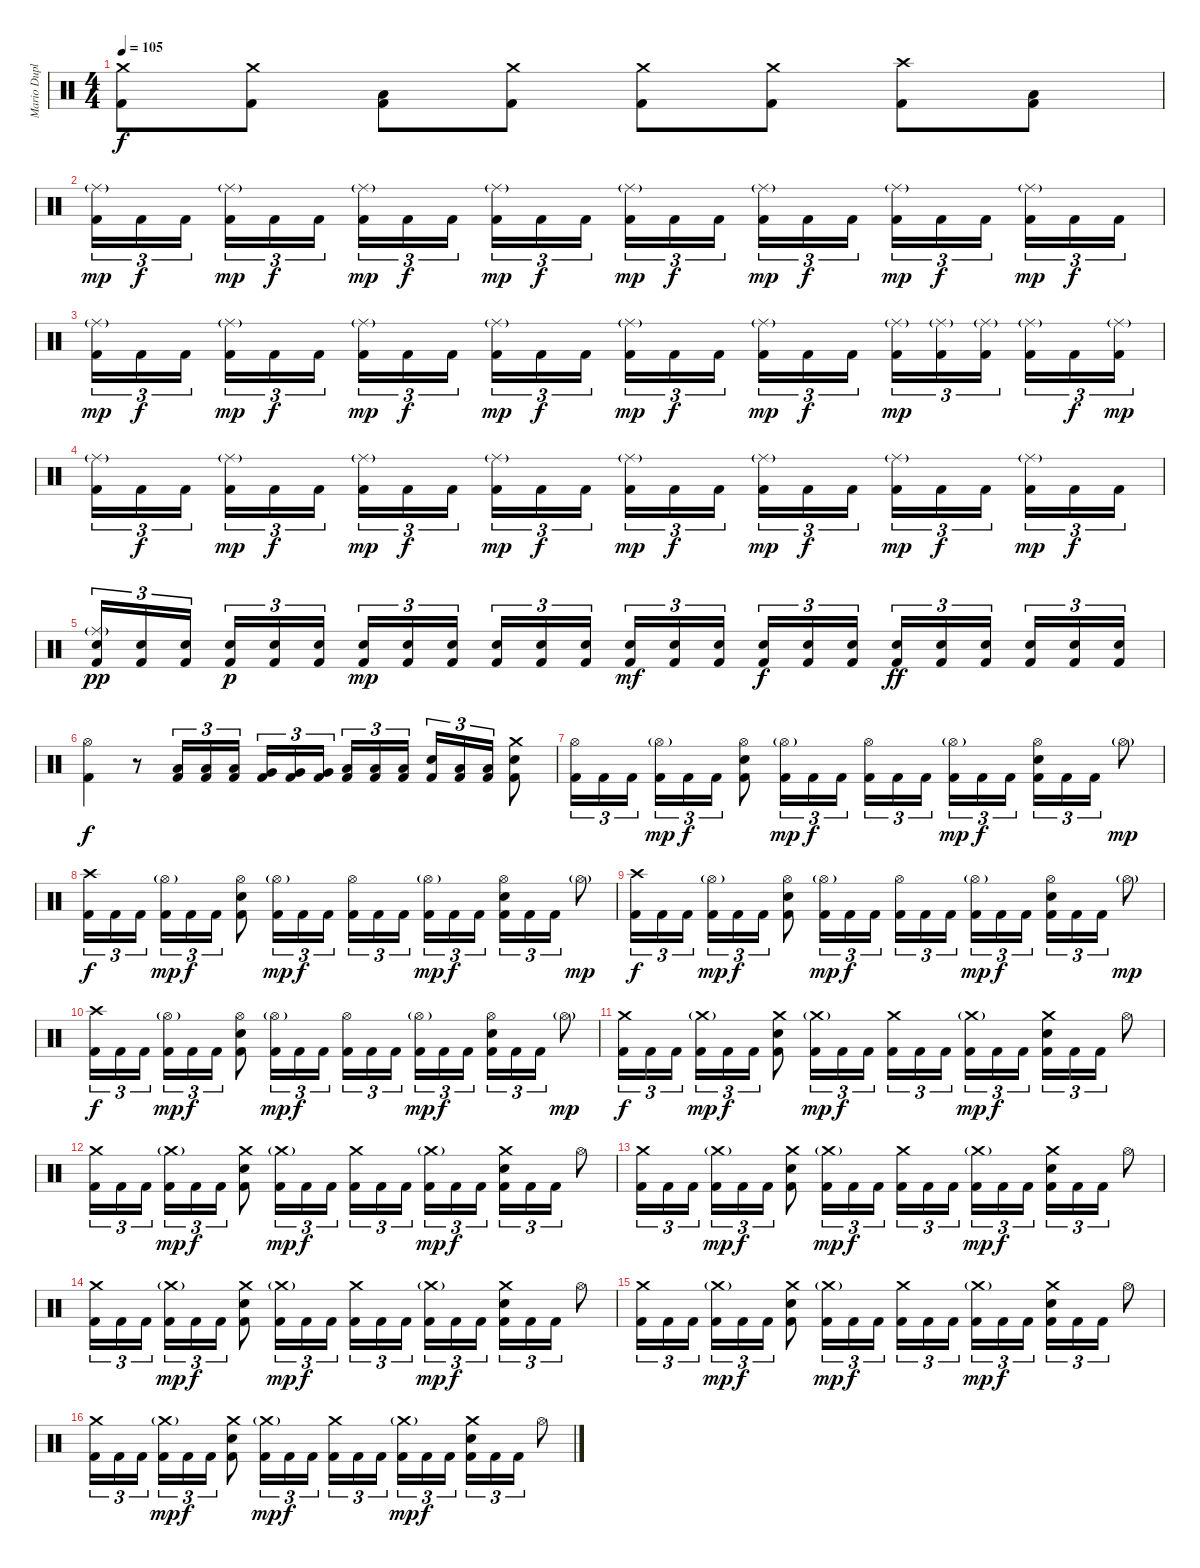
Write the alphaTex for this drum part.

\track ("Mario Duplantier" "Mario Dupl") {instrument percussion}
\staff {score}
\articulation defaults
\ts (4 4)
\tempo 105
\clef neutral
\ks c
("Crash medium (hit)" "Kick (hit) 2").8{dy f} ("Crash medium (hit)" "Kick (hit) 2").8 ("Low Floor Tom (hit)" "Kick (hit) 2").8 ("Crash medium (hit)" "Kick (hit) 2").8 ("Crash medium (hit)" "Kick (hit) 2").8 ("Crash medium (hit)" "Kick (hit) 2").8 ("Crash high (hit)" "Kick (hit) 2").8 ("Low Floor Tom (hit)" "Kick (hit) 2").8 |
("Ride (middle)"{g} "Kick (hit) 2").16{tu (3 2) dy mp} "Kick (hit) 2".16{tu (3 2) dy f} "Kick (hit) 2".16{tu (3 2)} ("Ride (middle)"{g} "Kick (hit) 2").16{tu (3 2) dy mp} "Kick (hit) 2".16{tu (3 2) dy f} "Kick (hit) 2".16{tu (3 2)} ("Ride (middle)"{g} "Kick (hit) 2").16{tu (3 2) dy mp} "Kick (hit) 2".16{tu (3 2) dy f} "Kick (hit) 2".16{tu (3 2)} ("Ride (middle)"{g} "Kick (hit) 2").16{tu (3 2) dy mp} "Kick (hit) 2".16{tu (3 2) dy f} "Kick (hit) 2".16{tu (3 2)} ("Ride (middle)"{g} "Kick (hit) 2").16{tu (3 2) dy mp} "Kick (hit) 2".16{tu (3 2) dy f} "Kick (hit) 2".16{tu (3 2)} ("Ride (middle)"{g} "Kick (hit) 2").16{tu (3 2) dy mp} "Kick (hit) 2".16{tu (3 2) dy f} "Kick (hit) 2".16{tu (3 2)} ("Ride (middle)"{g} "Kick (hit) 2").16{tu (3 2) dy mp} "Kick (hit) 2".16{tu (3 2) dy f} "Kick (hit) 2".16{tu (3 2)} ("Ride (middle)"{g} "Kick (hit) 2").16{tu (3 2) dy mp} "Kick (hit) 2".16{tu (3 2) dy f} "Kick (hit) 2".16{tu (3 2)} |
("Ride (middle)"{g} "Kick (hit) 2").16{tu (3 2) dy mp} "Kick (hit) 2".16{tu (3 2) dy f} "Kick (hit) 2".16{tu (3 2)} ("Ride (middle)"{g} "Kick (hit) 2").16{tu (3 2) dy mp} "Kick (hit) 2".16{tu (3 2) dy f} "Kick (hit) 2".16{tu (3 2)} ("Ride (middle)"{g} "Kick (hit) 2").16{tu (3 2) dy mp} "Kick (hit) 2".16{tu (3 2) dy f} "Kick (hit) 2".16{tu (3 2)} ("Ride (middle)"{g} "Kick (hit) 2").16{tu (3 2) dy mp} "Kick (hit) 2".16{tu (3 2) dy f} "Kick (hit) 2".16{tu (3 2)} ("Ride (middle)"{g} "Kick (hit) 2").16{tu (3 2) dy mp} "Kick (hit) 2".16{tu (3 2) dy f} "Kick (hit) 2".16{tu (3 2)} ("Ride (middle)"{g} "Kick (hit) 2").16{tu (3 2) dy mp} "Kick (hit) 2".16{tu (3 2) dy f} "Kick (hit) 2".16{tu (3 2)} ("Ride (middle)"{g} "Kick (hit) 2").16{tu (3 2) dy mp} ("Ride (middle)"{g} "Kick (hit) 2").16{tu (3 2)} ("Ride (middle)"{g} "Kick (hit) 2").16{tu (3 2)} ("Ride (middle)"{g} "Kick (hit) 2").16{tu (3 2)} "Kick (hit) 2".16{tu (3 2) dy f} ("Ride (middle)"{g} "Kick (hit) 2").16{tu (3 2) dy mp} |
("Ride (middle)"{g} "Kick (hit) 2").16{tu (3 2)} "Kick (hit) 2".16{tu (3 2) dy f} "Kick (hit) 2".16{tu (3 2)} ("Ride (middle)"{g} "Kick (hit) 2").16{tu (3 2) dy mp} "Kick (hit) 2".16{tu (3 2) dy f} "Kick (hit) 2".16{tu (3 2)} ("Ride (middle)"{g} "Kick (hit) 2").16{tu (3 2) dy mp} "Kick (hit) 2".16{tu (3 2) dy f} "Kick (hit) 2".16{tu (3 2)} ("Ride (middle)"{g} "Kick (hit) 2").16{tu (3 2) dy mp} "Kick (hit) 2".16{tu (3 2) dy f} "Kick (hit) 2".16{tu (3 2)} ("Ride (middle)"{g} "Kick (hit) 2").16{tu (3 2) dy mp} "Kick (hit) 2".16{tu (3 2) dy f} "Kick (hit) 2".16{tu (3 2)} ("Ride (middle)"{g} "Kick (hit) 2").16{tu (3 2) dy mp} "Kick (hit) 2".16{tu (3 2) dy f} "Kick (hit) 2".16{tu (3 2)} ("Ride (middle)"{g} "Kick (hit) 2").16{tu (3 2) dy mp} "Kick (hit) 2".16{tu (3 2) dy f} "Kick (hit) 2".16{tu (3 2)} ("Ride (middle)"{g} "Kick (hit) 2").16{tu (3 2) dy mp} "Kick (hit) 2".16{tu (3 2) dy f} "Kick (hit) 2".16{tu (3 2)} |
("Ride (middle)"{g} "Electric Snare (hit)" "Kick (hit) 2").16{tu (3 2) dy pp} ("Electric Snare (hit)" "Kick (hit) 2").16{tu (3 2)} ("Electric Snare (hit)" "Kick (hit) 2").16{tu (3 2)} ("Electric Snare (hit)" "Kick (hit) 2").16{tu (3 2) dy p} ("Electric Snare (hit)" "Kick (hit) 2").16{tu (3 2)} ("Electric Snare (hit)" "Kick (hit) 2").16{tu (3 2)} ("Electric Snare (hit)" "Kick (hit) 2").16{tu (3 2) dy mp} ("Electric Snare (hit)" "Kick (hit) 2").16{tu (3 2)} ("Electric Snare (hit)" "Kick (hit) 2").16{tu (3 2)} ("Electric Snare (hit)" "Kick (hit) 2").16{tu (3 2)} ("Electric Snare (hit)" "Kick (hit) 2").16{tu (3 2)} ("Electric Snare (hit)" "Kick (hit) 2").16{tu (3 2)} ("Electric Snare (hit)" "Kick (hit) 2").16{tu (3 2) dy mf} ("Electric Snare (hit)" "Kick (hit) 2").16{tu (3 2)} ("Electric Snare (hit)" "Kick (hit) 2").16{tu (3 2)} ("Electric Snare (hit)" "Kick (hit) 2").16{tu (3 2) dy f} ("Electric Snare (hit)" "Kick (hit) 2").16{tu (3 2)} ("Electric Snare (hit)" "Kick (hit) 2").16{tu (3 2)} ("Electric Snare (hit)" "Kick (hit) 2").16{tu (3 2) dy ff} ("Electric Snare (hit)" "Kick (hit) 2").16{tu (3 2)} ("Electric Snare (hit)" "Kick (hit) 2").16{tu (3 2)} ("Electric Snare (hit)" "Kick (hit) 2").16{tu (3 2)} ("Electric Snare (hit)" "Kick (hit) 2").16{tu (3 2)} ("Electric Snare (hit)" "Kick (hit) 2").16{tu (3 2)} |
("Hi-Hat (open)" "Kick (hit) 2").4{dy f} r.8 ("Low Tom (hit)" "Kick (hit) 2").16{tu (3 2)} ("Low Tom (hit)" "Kick (hit) 2").16{tu (3 2)} ("Low Tom (hit)" "Kick (hit) 2").16{tu (3 2)} ("Very Low Tom (hit)" "Kick (hit) 2").16{tu (3 2)} ("Very Low Tom (hit)" "Kick (hit) 2").16{tu (3 2)} ("Very Low Tom (hit)" "Kick (hit) 2").16{tu (3 2)} ("Low Floor Tom (hit)" "Kick (hit) 2").16{tu (3 2)} ("Low Floor Tom (hit)" "Kick (hit) 2").16{tu (3 2)} ("Low Floor Tom (hit)" "Kick (hit) 2").16{tu (3 2)} ("Electric Snare (hit)" "Kick (hit) 2").16{tu (3 2)} ("Low Floor Tom (hit)" "Kick (hit) 2").16{tu (3 2)} ("Low Floor Tom (hit)" "Kick (hit) 2").16{tu (3 2)} ("Crash medium (hit)" "Electric Snare (hit)" "Kick (hit) 2").8 |
("Hi-Hat (open)" "Kick (hit) 2").16{tu (3 2)} "Kick (hit) 2".16{tu (3 2)} "Kick (hit) 2".16{tu (3 2)} ("Hi-Hat (open)"{g} "Kick (hit) 2").16{tu (3 2) dy mp} "Kick (hit) 2".16{tu (3 2) dy f} "Kick (hit) 2".16{tu (3 2)} ("Hi-Hat (open)" "Electric Snare (hit)" "Kick (hit) 2").8 ("Hi-Hat (open)"{g} "Kick (hit) 2").16{tu (3 2) dy mp} "Kick (hit) 2".16{tu (3 2) dy f} "Kick (hit) 2".16{tu (3 2)} ("Hi-Hat (open)" "Kick (hit) 2").16{tu (3 2)} "Kick (hit) 2".16{tu (3 2)} "Kick (hit) 2".16{tu (3 2)} ("Hi-Hat (open)"{g} "Kick (hit) 2").16{tu (3 2) dy mp} "Kick (hit) 2".16{tu (3 2) dy f} "Kick (hit) 2".16{tu (3 2)} ("Hi-Hat (open)" "Electric Snare (hit)" "Kick (hit) 2").16{tu (3 2)} "Kick (hit) 2".16{tu (3 2)} "Kick (hit) 2".16{tu (3 2)} "Hi-Hat (open)"{g}.8{dy mp} |
("Crash high (hit)" "Kick (hit) 2").16{tu (3 2) dy f} "Kick (hit) 2".16{tu (3 2)} "Kick (hit) 2".16{tu (3 2)} ("Hi-Hat (open)"{g} "Kick (hit) 2").16{tu (3 2) dy mp} "Kick (hit) 2".16{tu (3 2) dy f} "Kick (hit) 2".16{tu (3 2)} ("Hi-Hat (open)" "Electric Snare (hit)" "Kick (hit) 2").8 ("Hi-Hat (open)"{g} "Kick (hit) 2").16{tu (3 2) dy mp} "Kick (hit) 2".16{tu (3 2) dy f} "Kick (hit) 2".16{tu (3 2)} ("Hi-Hat (open)" "Kick (hit) 2").16{tu (3 2)} "Kick (hit) 2".16{tu (3 2)} "Kick (hit) 2".16{tu (3 2)} ("Hi-Hat (open)"{g} "Kick (hit) 2").16{tu (3 2) dy mp} "Kick (hit) 2".16{tu (3 2) dy f} "Kick (hit) 2".16{tu (3 2)} ("Hi-Hat (open)" "Electric Snare (hit)" "Kick (hit) 2").16{tu (3 2)} "Kick (hit) 2".16{tu (3 2)} "Kick (hit) 2".16{tu (3 2)} "Hi-Hat (open)"{g}.8{dy mp} |
("Crash high (hit)" "Kick (hit) 2").16{tu (3 2) dy f} "Kick (hit) 2".16{tu (3 2)} "Kick (hit) 2".16{tu (3 2)} ("Hi-Hat (open)"{g} "Kick (hit) 2").16{tu (3 2) dy mp} "Kick (hit) 2".16{tu (3 2) dy f} "Kick (hit) 2".16{tu (3 2)} ("Hi-Hat (open)" "Electric Snare (hit)" "Kick (hit) 2").8 ("Hi-Hat (open)"{g} "Kick (hit) 2").16{tu (3 2) dy mp} "Kick (hit) 2".16{tu (3 2) dy f} "Kick (hit) 2".16{tu (3 2)} ("Hi-Hat (open)" "Kick (hit) 2").16{tu (3 2)} "Kick (hit) 2".16{tu (3 2)} "Kick (hit) 2".16{tu (3 2)} ("Hi-Hat (open)"{g} "Kick (hit) 2").16{tu (3 2) dy mp} "Kick (hit) 2".16{tu (3 2) dy f} "Kick (hit) 2".16{tu (3 2)} ("Hi-Hat (open)" "Electric Snare (hit)" "Kick (hit) 2").16{tu (3 2)} "Kick (hit) 2".16{tu (3 2)} "Kick (hit) 2".16{tu (3 2)} "Hi-Hat (open)"{g}.8{dy mp} |
("Crash high (hit)" "Kick (hit) 2").16{tu (3 2) dy f} "Kick (hit) 2".16{tu (3 2)} "Kick (hit) 2".16{tu (3 2)} ("Hi-Hat (open)"{g} "Kick (hit) 2").16{tu (3 2) dy mp} "Kick (hit) 2".16{tu (3 2) dy f} "Kick (hit) 2".16{tu (3 2)} ("Hi-Hat (open)" "Electric Snare (hit)" "Kick (hit) 2").8 ("Hi-Hat (open)"{g} "Kick (hit) 2").16{tu (3 2) dy mp} "Kick (hit) 2".16{tu (3 2) dy f} "Kick (hit) 2".16{tu (3 2)} ("Hi-Hat (open)" "Kick (hit) 2").16{tu (3 2)} "Kick (hit) 2".16{tu (3 2)} "Kick (hit) 2".16{tu (3 2)} ("Hi-Hat (open)"{g} "Kick (hit) 2").16{tu (3 2) dy mp} "Kick (hit) 2".16{tu (3 2) dy f} "Kick (hit) 2".16{tu (3 2)} ("Hi-Hat (open)" "Electric Snare (hit)" "Kick (hit) 2").16{tu (3 2)} "Kick (hit) 2".16{tu (3 2)} "Kick (hit) 2".16{tu (3 2)} "Hi-Hat (open)"{g}.8{dy mp} |
("Crash medium (hit)" "Kick (hit) 2").16{tu (3 2) dy f} "Kick (hit) 2".16{tu (3 2)} "Kick (hit) 2".16{tu (3 2)} ("Crash medium (hit)"{g} "Kick (hit) 2").16{tu (3 2) dy mp} "Kick (hit) 2".16{tu (3 2) dy f} "Kick (hit) 2".16{tu (3 2)} ("Crash medium (hit)" "Electric Snare (hit)" "Kick (hit) 2").8 ("Crash medium (hit)"{g} "Kick (hit) 2").16{tu (3 2) dy mp} "Kick (hit) 2".16{tu (3 2) dy f} "Kick (hit) 2".16{tu (3 2)} ("Crash medium (hit)" "Kick (hit) 2").16{tu (3 2)} "Kick (hit) 2".16{tu (3 2)} "Kick (hit) 2".16{tu (3 2)} ("Crash medium (hit)"{g} "Kick (hit) 2").16{tu (3 2) dy mp} "Kick (hit) 2".16{tu (3 2) dy f} "Kick (hit) 2".16{tu (3 2)} ("Crash medium (hit)" "Electric Snare (hit)" "Kick (hit) 2").16{tu (3 2)} "Kick (hit) 2".16{tu (3 2)} "Kick (hit) 2".16{tu (3 2)} "Hi-Hat (open)".8 |
("Crash medium (hit)" "Kick (hit) 2").16{tu (3 2)} "Kick (hit) 2".16{tu (3 2)} "Kick (hit) 2".16{tu (3 2)} ("Crash medium (hit)"{g} "Kick (hit) 2").16{tu (3 2) dy mp} "Kick (hit) 2".16{tu (3 2) dy f} "Kick (hit) 2".16{tu (3 2)} ("Crash medium (hit)" "Electric Snare (hit)" "Kick (hit) 2").8 ("Crash medium (hit)"{g} "Kick (hit) 2").16{tu (3 2) dy mp} "Kick (hit) 2".16{tu (3 2) dy f} "Kick (hit) 2".16{tu (3 2)} ("Crash medium (hit)" "Kick (hit) 2").16{tu (3 2)} "Kick (hit) 2".16{tu (3 2)} "Kick (hit) 2".16{tu (3 2)} ("Crash medium (hit)"{g} "Kick (hit) 2").16{tu (3 2) dy mp} "Kick (hit) 2".16{tu (3 2) dy f} "Kick (hit) 2".16{tu (3 2)} ("Crash medium (hit)" "Electric Snare (hit)" "Kick (hit) 2").16{tu (3 2)} "Kick (hit) 2".16{tu (3 2)} "Kick (hit) 2".16{tu (3 2)} "Hi-Hat (open)".8 |
("Crash medium (hit)" "Kick (hit) 2").16{tu (3 2)} "Kick (hit) 2".16{tu (3 2)} "Kick (hit) 2".16{tu (3 2)} ("Crash medium (hit)"{g} "Kick (hit) 2").16{tu (3 2) dy mp} "Kick (hit) 2".16{tu (3 2) dy f} "Kick (hit) 2".16{tu (3 2)} ("Crash medium (hit)" "Electric Snare (hit)" "Kick (hit) 2").8 ("Crash medium (hit)"{g} "Kick (hit) 2").16{tu (3 2) dy mp} "Kick (hit) 2".16{tu (3 2) dy f} "Kick (hit) 2".16{tu (3 2)} ("Crash medium (hit)" "Kick (hit) 2").16{tu (3 2)} "Kick (hit) 2".16{tu (3 2)} "Kick (hit) 2".16{tu (3 2)} ("Crash medium (hit)"{g} "Kick (hit) 2").16{tu (3 2) dy mp} "Kick (hit) 2".16{tu (3 2) dy f} "Kick (hit) 2".16{tu (3 2)} ("Crash medium (hit)" "Electric Snare (hit)" "Kick (hit) 2").16{tu (3 2)} "Kick (hit) 2".16{tu (3 2)} "Kick (hit) 2".16{tu (3 2)} "Hi-Hat (open)".8 |
("Crash medium (hit)" "Kick (hit) 2").16{tu (3 2)} "Kick (hit) 2".16{tu (3 2)} "Kick (hit) 2".16{tu (3 2)} ("Crash medium (hit)"{g} "Kick (hit) 2").16{tu (3 2) dy mp} "Kick (hit) 2".16{tu (3 2) dy f} "Kick (hit) 2".16{tu (3 2)} ("Crash medium (hit)" "Electric Snare (hit)" "Kick (hit) 2").8 ("Crash medium (hit)"{g} "Kick (hit) 2").16{tu (3 2) dy mp} "Kick (hit) 2".16{tu (3 2) dy f} "Kick (hit) 2".16{tu (3 2)} ("Crash medium (hit)" "Kick (hit) 2").16{tu (3 2)} "Kick (hit) 2".16{tu (3 2)} "Kick (hit) 2".16{tu (3 2)} ("Crash medium (hit)"{g} "Kick (hit) 2").16{tu (3 2) dy mp} "Kick (hit) 2".16{tu (3 2) dy f} "Kick (hit) 2".16{tu (3 2)} ("Crash medium (hit)" "Electric Snare (hit)" "Kick (hit) 2").16{tu (3 2)} "Kick (hit) 2".16{tu (3 2)} "Kick (hit) 2".16{tu (3 2)} "Hi-Hat (open)".8 |
("Crash medium (hit)" "Kick (hit) 2").16{tu (3 2)} "Kick (hit) 2".16{tu (3 2)} "Kick (hit) 2".16{tu (3 2)} ("Crash medium (hit)"{g} "Kick (hit) 2").16{tu (3 2) dy mp} "Kick (hit) 2".16{tu (3 2) dy f} "Kick (hit) 2".16{tu (3 2)} ("Crash medium (hit)" "Electric Snare (hit)" "Kick (hit) 2").8 ("Crash medium (hit)"{g} "Kick (hit) 2").16{tu (3 2) dy mp} "Kick (hit) 2".16{tu (3 2) dy f} "Kick (hit) 2".16{tu (3 2)} ("Crash medium (hit)" "Kick (hit) 2").16{tu (3 2)} "Kick (hit) 2".16{tu (3 2)} "Kick (hit) 2".16{tu (3 2)} ("Crash medium (hit)"{g} "Kick (hit) 2").16{tu (3 2) dy mp} "Kick (hit) 2".16{tu (3 2) dy f} "Kick (hit) 2".16{tu (3 2)} ("Crash medium (hit)" "Electric Snare (hit)" "Kick (hit) 2").16{tu (3 2)} "Kick (hit) 2".16{tu (3 2)} "Kick (hit) 2".16{tu (3 2)} "Hi-Hat (open)".8 |
("Crash medium (hit)" "Kick (hit) 2").16{tu (3 2)} "Kick (hit) 2".16{tu (3 2)} "Kick (hit) 2".16{tu (3 2)} ("Crash medium (hit)"{g} "Kick (hit) 2").16{tu (3 2) dy mp} "Kick (hit) 2".16{tu (3 2) dy f} "Kick (hit) 2".16{tu (3 2)} ("Crash medium (hit)" "Electric Snare (hit)" "Kick (hit) 2").8 ("Crash medium (hit)"{g} "Kick (hit) 2").16{tu (3 2) dy mp} "Kick (hit) 2".16{tu (3 2) dy f} "Kick (hit) 2".16{tu (3 2)} ("Crash medium (hit)" "Kick (hit) 2").16{tu (3 2)} "Kick (hit) 2".16{tu (3 2)} "Kick (hit) 2".16{tu (3 2)} ("Crash medium (hit)"{g} "Kick (hit) 2").16{tu (3 2) dy mp} "Kick (hit) 2".16{tu (3 2) dy f} "Kick (hit) 2".16{tu (3 2)} ("Crash medium (hit)" "Electric Snare (hit)" "Kick (hit) 2").16{tu (3 2)} "Kick (hit) 2".16{tu (3 2)} "Kick (hit) 2".16{tu (3 2)} "Hi-Hat (open)".8
